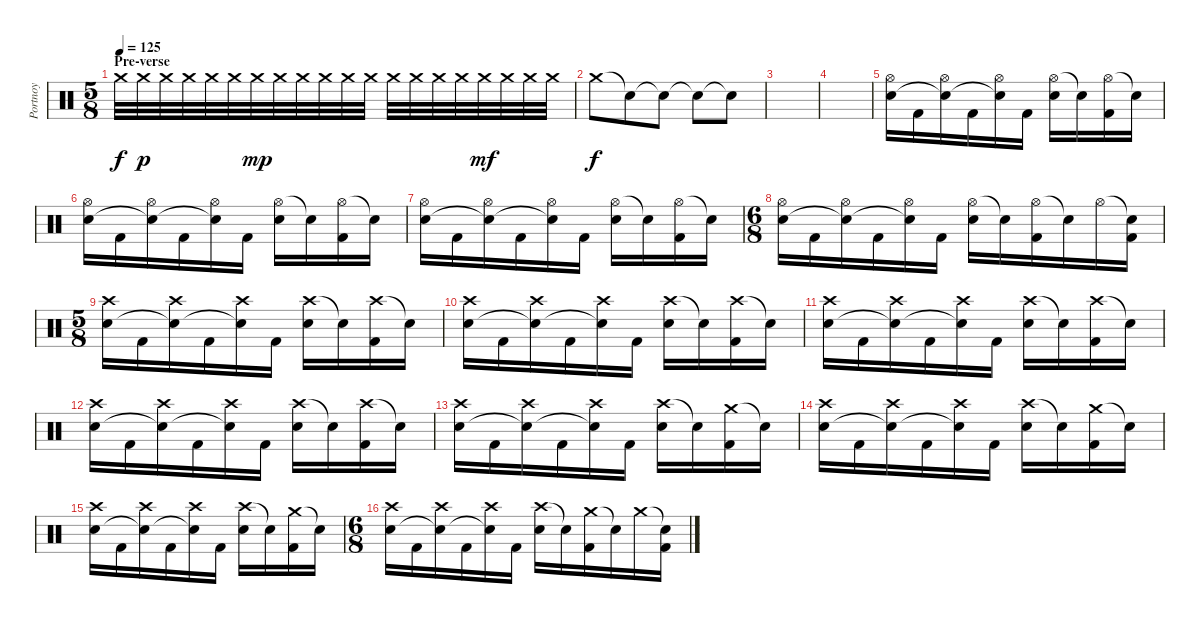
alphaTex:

\track ("Portnoy" "Portnoy") {instrument percussion}
\staff {score}
\articulation defaults
\ts (5 8)
\section ("" "Pre-verse")
\tempo 125
\clef neutral
\ks c "Crash medium (hit)".32{dy f} "Crash medium (hit)".32{dy p} "Crash medium (hit)".32 "Crash medium (hit)".32 "Crash medium (hit)".32 "Crash medium (hit)".32 "Crash medium (hit)".32{dy mp} "Crash medium (hit)".32 "Crash medium (hit)".32 "Crash medium (hit)".32 "Crash medium (hit)".32 "Crash medium (hit)".32 "Crash medium (hit)".32 "Crash medium (hit)".32 "Crash medium (hit)".32 "Crash medium (hit)".32 "Crash medium (hit)".32{dy mf} "Crash medium (hit)".32 "Crash medium (hit)".32 "Crash medium (hit)".32
|
"Crash medium (hit)".8{dy f} "Snare (hit)"{t}.8 "Snare (hit)"{t}.8 "Snare (hit)"{t}.8 "Snare (hit)"{t}.8 |
|
|
("Hi-Hat (open)" "Snare (hit) 2").16 "Kick (hit) 2".16 ("Hi-Hat (open)" "Snare (hit)"{t}).16 "Kick (hit) 2".16 ("Hi-Hat (open)" "Snare (hit)"{t}).16 "Kick (hit) 2".16 ("Hi-Hat (open)" "Snare (hit) 2").16 "Snare (hit)"{t}.16 ("Hi-Hat (open)" "Kick (hit) 2").16 "Snare (hit)"{t}.16 |
("Hi-Hat (open)" "Snare (hit) 2").16 "Kick (hit) 2".16 ("Hi-Hat (open)" "Snare (hit)"{t}).16 "Kick (hit) 2".16 ("Hi-Hat (open)" "Snare (hit)"{t}).16 "Kick (hit) 2".16 ("Hi-Hat (open)" "Snare (hit) 2").16 "Snare (hit)"{t}.16 ("Hi-Hat (open)" "Kick (hit) 2").16 "Snare (hit)"{t}.16 |
("Hi-Hat (open)" "Snare (hit) 2").16 "Kick (hit) 2".16 ("Hi-Hat (open)" "Snare (hit)"{t}).16 "Kick (hit) 2".16 ("Hi-Hat (open)" "Snare (hit)"{t}).16 "Kick (hit) 2".16 ("Hi-Hat (open)" "Snare (hit) 2").16 "Snare (hit)"{t}.16 ("Hi-Hat (open)" "Kick (hit) 2").16 "Snare (hit)"{t}.16 |
\ts (6 8)
("Hi-Hat (open)" "Snare (hit) 2").16 "Kick (hit) 2".16 ("Hi-Hat (open)" "Snare (hit)"{t}).16 "Kick (hit) 2".16 ("Hi-Hat (open)" "Snare (hit)"{t}).16 "Kick (hit) 2".16 ("Hi-Hat (open)" "Snare (hit) 2").16 "Snare (hit)"{t}.16 ("Hi-Hat (open)" "Kick (hit) 2").16 "Snare (hit)"{t}.16 "Hi-Hat (open)".16 ("Snare (hit)"{t} "Kick (hit) 2").16 |
\ts (5 8)
("Crash high (hit)" "Snare (hit) 2").16 "Kick (hit) 2".16 ("Crash high (hit)" "Snare (hit)"{t}).16 "Kick (hit) 2".16 ("Crash high (hit)" "Snare (hit)"{t}).16 "Kick (hit) 2".16 ("Crash high (hit)" "Snare (hit) 2").16 "Snare (hit)"{t}.16 ("Crash high (hit)" "Kick (hit) 2").16 "Snare (hit)"{t}.16 |
("Crash high (hit)" "Snare (hit) 2").16 "Kick (hit) 2".16 ("Crash high (hit)" "Snare (hit)"{t}).16 "Kick (hit) 2".16 ("Crash high (hit)" "Snare (hit)"{t}).16 "Kick (hit) 2".16 ("Crash high (hit)" "Snare (hit) 2").16 "Snare (hit)"{t}.16 ("Crash high (hit)" "Kick (hit) 2").16 "Snare (hit)"{t}.16 |
("Crash high (hit)" "Snare (hit) 2").16 "Kick (hit) 2".16 ("Crash high (hit)" "Snare (hit)"{t}).16 "Kick (hit) 2".16 ("Crash high (hit)" "Snare (hit)"{t}).16 "Kick (hit) 2".16 ("Crash high (hit)" "Snare (hit) 2").16 "Snare (hit)"{t}.16 ("Crash high (hit)" "Kick (hit) 2").16 "Snare (hit)"{t}.16 |
("Crash high (hit)" "Snare (hit) 2").16 "Kick (hit) 2".16 ("Crash high (hit)" "Snare (hit)"{t}).16 "Kick (hit) 2".16 ("Crash high (hit)" "Snare (hit)"{t}).16 "Kick (hit) 2".16 ("Crash high (hit)" "Snare (hit) 2").16 "Snare (hit)"{t}.16 ("Crash high (hit)" "Kick (hit) 2").16 "Snare (hit)"{t}.16 |
("Crash high (hit)" "Snare (hit) 2").16 "Kick (hit) 2".16 ("Crash high (hit)" "Snare (hit)"{t}).16 "Kick (hit) 2".16 ("Crash high (hit)" "Snare (hit)"{t}).16 "Kick (hit) 2".16 ("Crash high (hit)" "Snare (hit) 2").16 "Snare (hit)"{t}.16 ("Crash medium (hit)" "Kick (hit) 2").16 "Snare (hit)"{t}.16 |
("Crash high (hit)" "Snare (hit) 2").16 "Kick (hit) 2".16 ("Crash high (hit)" "Snare (hit)"{t}).16 "Kick (hit) 2".16 ("Crash high (hit)" "Snare (hit)"{t}).16 "Kick (hit) 2".16 ("Crash high (hit)" "Snare (hit) 2").16 "Snare (hit)"{t}.16 ("Crash medium (hit)" "Kick (hit) 2").16 "Snare (hit)"{t}.16 |
("Crash high (hit)" "Snare (hit) 2").16 "Kick (hit) 2".16 ("Crash high (hit)" "Snare (hit)"{t}).16 "Kick (hit) 2".16 ("Crash high (hit)" "Snare (hit)"{t}).16 "Kick (hit) 2".16 ("Crash high (hit)" "Snare (hit) 2").16 "Snare (hit)"{t}.16 ("Crash medium (hit)" "Kick (hit) 2").16 "Snare (hit)"{t}.16 |
\ts (6 8)
("Crash high (hit)" "Snare (hit) 2").16 "Kick (hit) 2".16 ("Crash high (hit)" "Snare (hit)"{t}).16 "Kick (hit) 2".16 ("Crash high (hit)" "Snare (hit)"{t}).16 "Kick (hit) 2".16 ("Crash high (hit)" "Snare (hit) 2").16 "Snare (hit)"{t}.16 ("Crash medium (hit)" "Kick (hit) 2").16 "Snare (hit)"{t}.16 "Crash medium (hit)".16 ("Snare (hit)"{t} "Kick (hit) 2").16
